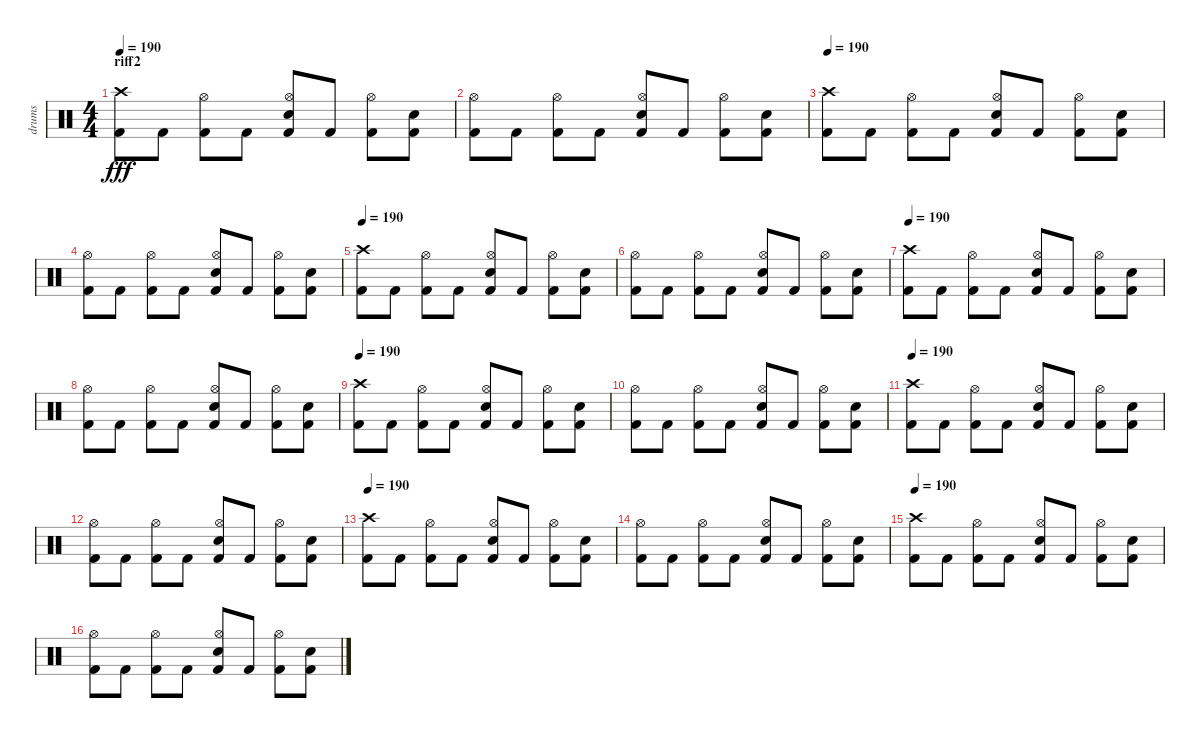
\track ("drums" "drums") {instrument percussion}
\staff {score}
\articulation defaults
\ts (4 4)
\section ("" "riff2")
\tempo 190
\clef neutral
\ks c
("Crash high (hit)" "Kick (hit) 2").8{dy fff} "Kick (hit) 2".8 ("Hi-Hat (open)" "Kick (hit) 2").8 "Kick (hit) 2".8 ("Hi-Hat (open)" "Snare (hit) 2" "Kick (hit) 2").8 "Kick (hit) 2".8 ("Hi-Hat (open)" "Kick (hit) 2").8 ("Snare (hit) 2" "Kick (hit) 2").8 |
("Hi-Hat (open)" "Kick (hit) 2").8 "Kick (hit) 2".8 ("Hi-Hat (open)" "Kick (hit) 2").8 "Kick (hit) 2".8 ("Hi-Hat (open)" "Snare (hit) 2" "Kick (hit) 2").8 "Kick (hit) 2".8 ("Hi-Hat (open)" "Kick (hit) 2").8 ("Snare (hit) 2" "Kick (hit) 2").8 |
\tempo 190
("Crash high (hit)" "Kick (hit) 2").8 "Kick (hit) 2".8 ("Hi-Hat (open)" "Kick (hit) 2").8 "Kick (hit) 2".8 ("Hi-Hat (open)" "Snare (hit) 2" "Kick (hit) 2").8 "Kick (hit) 2".8 ("Hi-Hat (open)" "Kick (hit) 2").8 ("Snare (hit) 2" "Kick (hit) 2").8 |
("Hi-Hat (open)" "Kick (hit) 2").8 "Kick (hit) 2".8 ("Hi-Hat (open)" "Kick (hit) 2").8 "Kick (hit) 2".8 ("Hi-Hat (open)" "Snare (hit) 2" "Kick (hit) 2").8 "Kick (hit) 2".8 ("Hi-Hat (open)" "Kick (hit) 2").8 ("Snare (hit) 2" "Kick (hit) 2").8 |
\tempo 190
("Crash high (hit)" "Kick (hit) 2").8 "Kick (hit) 2".8 ("Hi-Hat (open)" "Kick (hit) 2").8 "Kick (hit) 2".8 ("Hi-Hat (open)" "Snare (hit) 2" "Kick (hit) 2").8 "Kick (hit) 2".8 ("Hi-Hat (open)" "Kick (hit) 2").8 ("Snare (hit) 2" "Kick (hit) 2").8 |
("Hi-Hat (open)" "Kick (hit) 2").8 "Kick (hit) 2".8 ("Hi-Hat (open)" "Kick (hit) 2").8 "Kick (hit) 2".8 ("Hi-Hat (open)" "Snare (hit) 2" "Kick (hit) 2").8 "Kick (hit) 2".8 ("Hi-Hat (open)" "Kick (hit) 2").8 ("Snare (hit) 2" "Kick (hit) 2").8 |
\tempo 190
("Crash high (hit)" "Kick (hit) 2").8 "Kick (hit) 2".8 ("Hi-Hat (open)" "Kick (hit) 2").8 "Kick (hit) 2".8 ("Hi-Hat (open)" "Snare (hit) 2" "Kick (hit) 2").8 "Kick (hit) 2".8 ("Hi-Hat (open)" "Kick (hit) 2").8 ("Snare (hit) 2" "Kick (hit) 2").8 |
("Hi-Hat (open)" "Kick (hit) 2").8 "Kick (hit) 2".8 ("Hi-Hat (open)" "Kick (hit) 2").8 "Kick (hit) 2".8 ("Hi-Hat (open)" "Snare (hit) 2" "Kick (hit) 2").8 "Kick (hit) 2".8 ("Hi-Hat (open)" "Kick (hit) 2").8 ("Snare (hit) 2" "Kick (hit) 2").8 |
\tempo 190
("Crash high (hit)" "Kick (hit) 2").8 "Kick (hit) 2".8 ("Hi-Hat (open)" "Kick (hit) 2").8 "Kick (hit) 2".8 ("Hi-Hat (open)" "Snare (hit) 2" "Kick (hit) 2").8 "Kick (hit) 2".8 ("Hi-Hat (open)" "Kick (hit) 2").8 ("Snare (hit) 2" "Kick (hit) 2").8 |
("Hi-Hat (open)" "Kick (hit) 2").8 "Kick (hit) 2".8 ("Hi-Hat (open)" "Kick (hit) 2").8 "Kick (hit) 2".8 ("Hi-Hat (open)" "Snare (hit) 2" "Kick (hit) 2").8 "Kick (hit) 2".8 ("Hi-Hat (open)" "Kick (hit) 2").8 ("Snare (hit) 2" "Kick (hit) 2").8 |
\tempo 190
("Crash high (hit)" "Kick (hit) 2").8 "Kick (hit) 2".8 ("Hi-Hat (open)" "Kick (hit) 2").8 "Kick (hit) 2".8 ("Hi-Hat (open)" "Snare (hit) 2" "Kick (hit) 2").8 "Kick (hit) 2".8 ("Hi-Hat (open)" "Kick (hit) 2").8 ("Snare (hit) 2" "Kick (hit) 2").8 |
("Hi-Hat (open)" "Kick (hit) 2").8 "Kick (hit) 2".8 ("Hi-Hat (open)" "Kick (hit) 2").8 "Kick (hit) 2".8 ("Hi-Hat (open)" "Snare (hit) 2" "Kick (hit) 2").8 "Kick (hit) 2".8 ("Hi-Hat (open)" "Kick (hit) 2").8 ("Snare (hit) 2" "Kick (hit) 2").8 |
\tempo 190
("Crash high (hit)" "Kick (hit) 2").8 "Kick (hit) 2".8 ("Hi-Hat (open)" "Kick (hit) 2").8 "Kick (hit) 2".8 ("Hi-Hat (open)" "Snare (hit) 2" "Kick (hit) 2").8 "Kick (hit) 2".8 ("Hi-Hat (open)" "Kick (hit) 2").8 ("Snare (hit) 2" "Kick (hit) 2").8 |
("Hi-Hat (open)" "Kick (hit) 2").8 "Kick (hit) 2".8 ("Hi-Hat (open)" "Kick (hit) 2").8 "Kick (hit) 2".8 ("Hi-Hat (open)" "Snare (hit) 2" "Kick (hit) 2").8 "Kick (hit) 2".8 ("Hi-Hat (open)" "Kick (hit) 2").8 ("Snare (hit) 2" "Kick (hit) 2").8 |
\tempo 190
("Crash high (hit)" "Kick (hit) 2").8 "Kick (hit) 2".8 ("Hi-Hat (open)" "Kick (hit) 2").8 "Kick (hit) 2".8 ("Hi-Hat (open)" "Snare (hit) 2" "Kick (hit) 2").8 "Kick (hit) 2".8 ("Hi-Hat (open)" "Kick (hit) 2").8 ("Snare (hit) 2" "Kick (hit) 2").8 |
("Hi-Hat (open)" "Kick (hit) 2").8 "Kick (hit) 2".8 ("Hi-Hat (open)" "Kick (hit) 2").8 "Kick (hit) 2".8 ("Hi-Hat (open)" "Snare (hit) 2" "Kick (hit) 2").8 "Kick (hit) 2".8 ("Hi-Hat (open)" "Kick (hit) 2").8 ("Snare (hit) 2" "Kick (hit) 2").8
